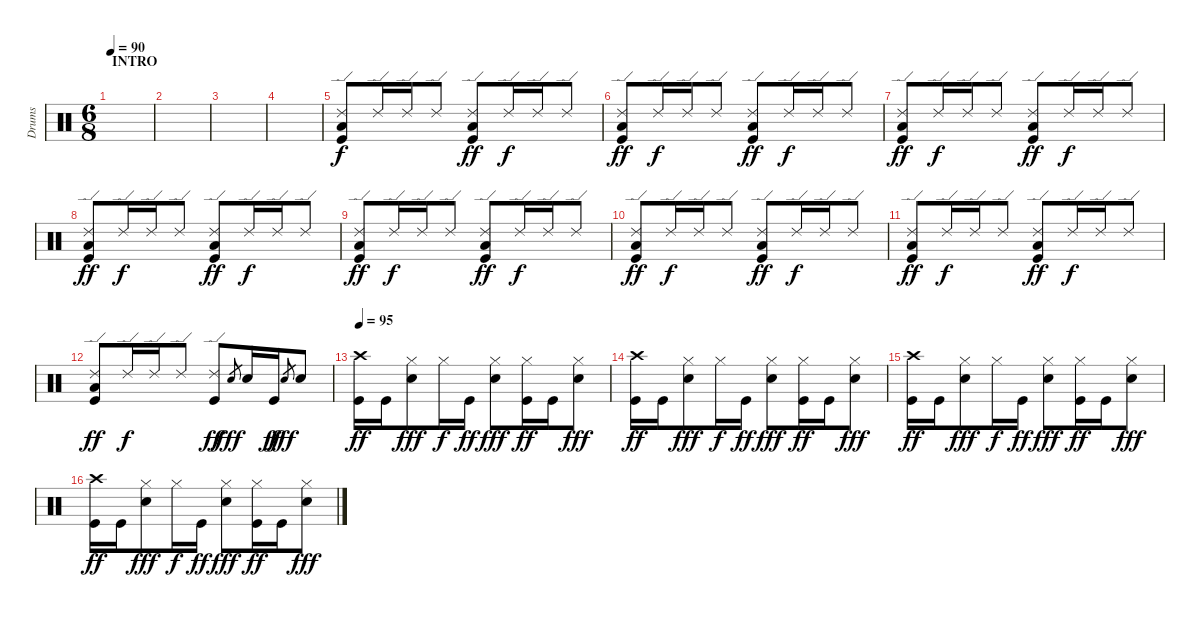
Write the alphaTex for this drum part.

\track ("Drums" "Drums") {instrument percussion}
\staff {score}
\articulation defaults
\ts (6 8)
\section ("" "INTRO")
\tempo 90
\clef neutral
\ks c
|
|
|
|
("Ride (edge) 2" "Low Tom (hit)" "Kick (hit)").8 "Ride (edge) 2".16{dy f} "Ride (edge) 2".16 "Ride (edge) 2".8 ("Ride (edge) 2" "Low Tom (hit)" "Kick (hit)").8{dy ff} "Ride (edge) 2".16{dy f} "Ride (edge) 2".16 "Ride (edge) 2".8 |
("Ride (edge) 2" "Low Tom (hit)" "Kick (hit)").8{dy ff} "Ride (edge) 2".16{dy f} "Ride (edge) 2".16 "Ride (edge) 2".8 ("Ride (edge) 2" "Low Tom (hit)" "Kick (hit)").8{dy ff} "Ride (edge) 2".16{dy f} "Ride (edge) 2".16 "Ride (edge) 2".8 |
("Ride (edge) 2" "Low Tom (hit)" "Kick (hit)").8{dy ff} "Ride (edge) 2".16{dy f} "Ride (edge) 2".16 "Ride (edge) 2".8 ("Ride (edge) 2" "Low Tom (hit)" "Kick (hit)").8{dy ff} "Ride (edge) 2".16{dy f} "Ride (edge) 2".16 "Ride (edge) 2".8 |
("Ride (edge) 2" "Low Tom (hit)" "Kick (hit)").8{dy ff} "Ride (edge) 2".16{dy f} "Ride (edge) 2".16 "Ride (edge) 2".8 ("Ride (edge) 2" "Low Tom (hit)" "Kick (hit)").8{dy ff} "Ride (edge) 2".16{dy f} "Ride (edge) 2".16 "Ride (edge) 2".8 |
("Ride (edge) 2" "Low Tom (hit)" "Kick (hit)").8{dy ff} "Ride (edge) 2".16{dy f} "Ride (edge) 2".16 "Ride (edge) 2".8 ("Ride (edge) 2" "Low Tom (hit)" "Kick (hit)").8{dy ff} "Ride (edge) 2".16{dy f} "Ride (edge) 2".16 "Ride (edge) 2".8 |
("Ride (edge) 2" "Low Tom (hit)" "Kick (hit)").8{dy ff} "Ride (edge) 2".16{dy f} "Ride (edge) 2".16 "Ride (edge) 2".8 ("Ride (edge) 2" "Low Tom (hit)" "Kick (hit)").8{dy ff} "Ride (edge) 2".16{dy f} "Ride (edge) 2".16 "Ride (edge) 2".8 |
("Ride (edge) 2" "Low Tom (hit)" "Kick (hit)").8{dy ff} "Ride (edge) 2".16{dy f} "Ride (edge) 2".16 "Ride (edge) 2".8 ("Ride (edge) 2" "Low Tom (hit)" "Kick (hit)").8{dy ff} "Ride (edge) 2".16{dy f} "Ride (edge) 2".16 "Ride (edge) 2".8 |
("Ride (edge) 2" "Low Tom (hit)" "Kick (hit)").8{dy ff} "Ride (edge) 2".16{dy f} "Ride (edge) 2".16 "Ride (edge) 2".8 ("Ride (edge) 2" "Kick (hit)").8{dy ff} "Electric Snare (hit)".8{gr dy fff} "Electric Snare (hit)".16 "Kick (hit)".16{dy ff} "Electric Snare (hit)".8{gr dy fff} "Electric Snare (hit)".8 |
\tempo 95
("Crash high (hit)" "Kick (hit)").16{dy ff} "Kick (hit)".16 ("Hi-Hat (closed)" "Electric Snare (hit)").8{dy fff} "Hi-Hat (closed)".16{dy f} "Kick (hit)".16{dy ff} ("Hi-Hat (closed)" "Electric Snare (hit)").8{dy fff} ("Hi-Hat (closed)" "Kick (hit)").16{dy ff} "Kick (hit)".16 ("Hi-Hat (closed)" "Electric Snare (hit)").8{dy fff} |
("Crash high (hit)" "Kick (hit)").16{dy ff} "Kick (hit)".16 ("Hi-Hat (closed)" "Electric Snare (hit)").8{dy fff} "Hi-Hat (closed)".16{dy f} "Kick (hit)".16{dy ff} ("Hi-Hat (closed)" "Electric Snare (hit)").8{dy fff} ("Hi-Hat (closed)" "Kick (hit)").16{dy ff} "Kick (hit)".16 ("Hi-Hat (closed)" "Electric Snare (hit)").8{dy fff} |
("Crash high (hit)" "Kick (hit)").16{dy ff} "Kick (hit)".16 ("Hi-Hat (closed)" "Electric Snare (hit)").8{dy fff} "Hi-Hat (closed)".16{dy f} "Kick (hit)".16{dy ff} ("Hi-Hat (closed)" "Electric Snare (hit)").8{dy fff} ("Hi-Hat (closed)" "Kick (hit)").16{dy ff} "Kick (hit)".16 ("Hi-Hat (closed)" "Electric Snare (hit)").8{dy fff} |
("Crash high (hit)" "Kick (hit)").16{dy ff} "Kick (hit)".16 ("Hi-Hat (closed)" "Electric Snare (hit)").8{dy fff} "Hi-Hat (closed)".16{dy f} "Kick (hit)".16{dy ff} ("Hi-Hat (closed)" "Electric Snare (hit)").8{dy fff} ("Hi-Hat (closed)" "Kick (hit)").16{dy ff} "Kick (hit)".16 ("Hi-Hat (closed)" "Electric Snare (hit)").8{dy fff}
